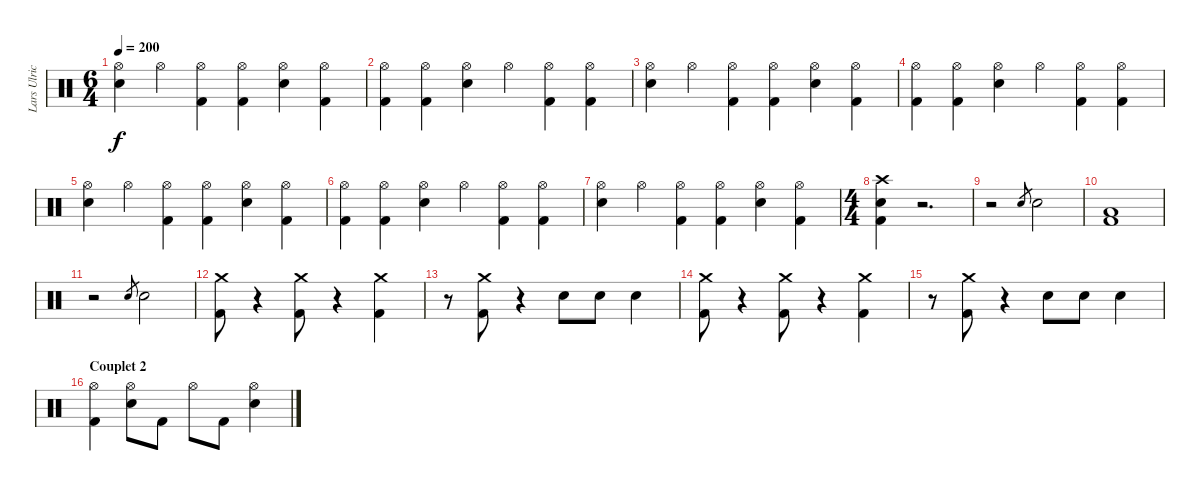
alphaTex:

\track ("Lars Ulrich" "Lars Ulric") {instrument percussion}
\staff {score}
\articulation defaults
\ts (6 4)
\tempo 200
\clef neutral
\ks c
("Hi-Hat (open)" "Electric Snare (hit)").4{dy f} "Hi-Hat (open)".4 ("Hi-Hat (open)" "Kick (hit) 2").4 ("Hi-Hat (open)" "Kick (hit) 2").4 ("Hi-Hat (open)" "Electric Snare (hit)").4 ("Hi-Hat (open)" "Kick (hit) 2").4 |
("Hi-Hat (open)" "Kick (hit) 2").4 ("Hi-Hat (open)" "Kick (hit) 2").4 ("Hi-Hat (open)" "Electric Snare (hit)").4 "Hi-Hat (open)".4 ("Hi-Hat (open)" "Kick (hit) 2").4 ("Hi-Hat (open)" "Kick (hit) 2").4 |
("Hi-Hat (open)" "Electric Snare (hit)").4 "Hi-Hat (open)".4 ("Hi-Hat (open)" "Kick (hit) 2").4 ("Hi-Hat (open)" "Kick (hit) 2").4 ("Hi-Hat (open)" "Electric Snare (hit)").4 ("Hi-Hat (open)" "Kick (hit) 2").4 |
("Hi-Hat (open)" "Kick (hit) 2").4 ("Hi-Hat (open)" "Kick (hit) 2").4 ("Hi-Hat (open)" "Electric Snare (hit)").4 "Hi-Hat (open)".4 ("Hi-Hat (open)" "Kick (hit) 2").4 ("Hi-Hat (open)" "Kick (hit) 2").4 |
("Hi-Hat (open)" "Electric Snare (hit)").4 "Hi-Hat (open)".4 ("Hi-Hat (open)" "Kick (hit) 2").4 ("Hi-Hat (open)" "Kick (hit) 2").4 ("Hi-Hat (open)" "Electric Snare (hit)").4 ("Hi-Hat (open)" "Kick (hit) 2").4 |
("Hi-Hat (open)" "Kick (hit) 2").4 ("Hi-Hat (open)" "Kick (hit) 2").4 ("Hi-Hat (open)" "Electric Snare (hit)").4 "Hi-Hat (open)".4 ("Hi-Hat (open)" "Kick (hit) 2").4 ("Hi-Hat (open)" "Kick (hit) 2").4 |
("Hi-Hat (open)" "Electric Snare (hit)").4 "Hi-Hat (open)".4 ("Hi-Hat (open)" "Kick (hit) 2").4 ("Hi-Hat (open)" "Kick (hit) 2").4 ("Hi-Hat (open)" "Electric Snare (hit)").4 ("Hi-Hat (open)" "Kick (hit) 2").4 |
\ts (4 4)
("Crash high (hit)" "Electric Snare (hit)" "Kick (hit) 2").4 r.2{d} |
r.2 "Electric Snare (hit)".8{gr} "Electric Snare (hit)".2 |
("Low Floor Tom (hit)" "Kick (hit) 2").1 |
r.2 "Electric Snare (hit)".8{gr} "Electric Snare (hit)".2 |
("Crash medium (hit)" "Kick (hit) 2").8 r.4 ("Crash medium (hit)" "Kick (hit) 2").8 r.4 ("Crash medium (hit)" "Kick (hit) 2").4 |
r.8 ("Crash medium (hit)" "Kick (hit) 2").8 r.4 "Electric Snare (hit)".8 "Electric Snare (hit)".8 "Electric Snare (hit)".4 |
("Crash medium (hit)" "Kick (hit) 2").8 r.4 ("Crash medium (hit)" "Kick (hit) 2").8 r.4 ("Crash medium (hit)" "Kick (hit) 2").4 |
r.8 ("Crash medium (hit)" "Kick (hit) 2").8 r.4 "Electric Snare (hit)".8 "Electric Snare (hit)".8 "Electric Snare (hit)".4 |
\section ("" "Couplet 2")
("Hi-Hat (open)" "Kick (hit) 2").4 ("Hi-Hat (open)" "Electric Snare (hit)").8 "Kick (hit) 2".8 "Hi-Hat (open)".8 "Kick (hit) 2".8 ("Hi-Hat (open)" "Electric Snare (hit)").4
